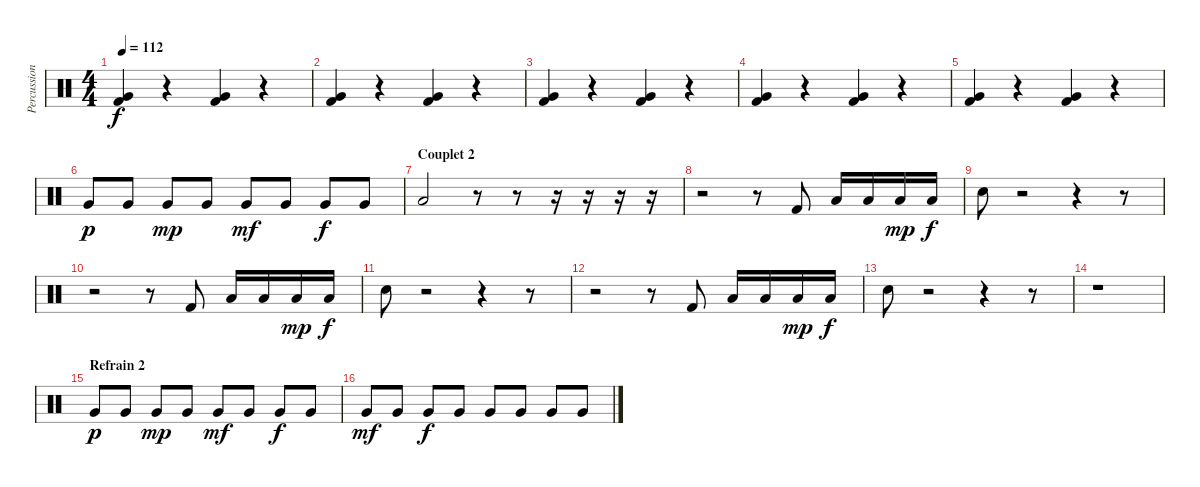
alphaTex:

\track ("Percussions" "Percussion") {instrument percussion}
\staff {score}
\articulation defaults
\ts (4 4)
\tempo 112
\clef neutral
\ks c
("Very Low Tom (hit)" "Kick (hit) 2").4{dy f} r.4 ("Very Low Tom (hit)" "Kick (hit) 2").4 r.4 |
("Very Low Tom (hit)" "Kick (hit) 2").4 r.4 ("Very Low Tom (hit)" "Kick (hit) 2").4 r.4 |
("Very Low Tom (hit)" "Kick (hit) 2").4 r.4 ("Very Low Tom (hit)" "Kick (hit) 2").4 r.4 |
("Very Low Tom (hit)" "Kick (hit) 2").4 r.4 ("Very Low Tom (hit)" "Kick (hit) 2").4 r.4 |
("Very Low Tom (hit)" "Kick (hit) 2").4 r.4 ("Very Low Tom (hit)" "Kick (hit) 2").4 r.4 |
"Very Low Tom (hit)".8{dy p} "Very Low Tom (hit)".8 "Very Low Tom (hit)".8{dy mp} "Very Low Tom (hit)".8 "Very Low Tom (hit)".8{dy mf} "Very Low Tom (hit)".8 "Very Low Tom (hit)".8{dy f} "Very Low Tom (hit)".8 |
\section ("" "Couplet 2")
"Low Tom (hit)".2 r.8 r.8 r.16 r.16 r.16 r.16 |
r.2 r.8 "Kick (hit) 2".8 "Low Tom (hit)".16 "Low Tom (hit)".16 "Low Tom (hit)".16{dy mp} "Low Tom (hit)".16{dy f} |
"Electric Snare (hit)".8 r.2 r.4 r.8 |
r.2 r.8 "Kick (hit) 2".8 "Low Tom (hit)".16 "Low Tom (hit)".16 "Low Tom (hit)".16{dy mp} "Low Tom (hit)".16{dy f} |
"Electric Snare (hit)".8 r.2 r.4 r.8 |
r.2 r.8 "Kick (hit) 2".8 "Low Tom (hit)".16 "Low Tom (hit)".16 "Low Tom (hit)".16{dy mp} "Low Tom (hit)".16{dy f} |
"Electric Snare (hit)".8 r.2 r.4 r.8 |
r.1 |
\section ("" "Refrain 2")
"Very Low Tom (hit)".8{dy p} "Very Low Tom (hit)".8 "Very Low Tom (hit)".8{dy mp} "Very Low Tom (hit)".8 "Very Low Tom (hit)".8{dy mf} "Very Low Tom (hit)".8 "Very Low Tom (hit)".8{dy f} "Very Low Tom (hit)".8 |
"Very Low Tom (hit)".8{dy mf} "Very Low Tom (hit)".8 "Very Low Tom (hit)".8{dy f} "Very Low Tom (hit)".8 "Very Low Tom (hit)".8 "Very Low Tom (hit)".8 "Very Low Tom (hit)".8 "Very Low Tom (hit)".8
